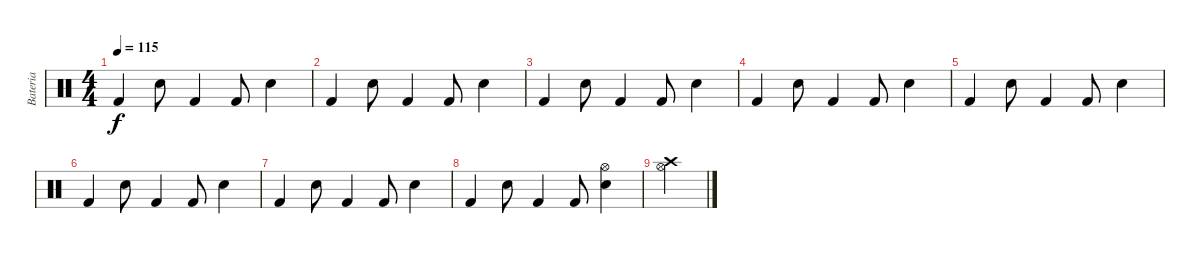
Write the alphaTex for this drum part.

\track ("Bateria" "Bateria") {instrument percussion}
\staff {score}
\articulation defaults
\ts (4 4)
\tempo 115
\clef neutral
\ks c "Kick (hit) 2".4{dy f} "Snare (hit) 2".8 "Kick (hit) 2".4 "Kick (hit) 2".8 "Snare (hit) 2".4
|
"Kick (hit) 2".4 "Snare (hit) 2".8 "Kick (hit) 2".4 "Kick (hit) 2".8 "Snare (hit) 2".4 |
"Kick (hit) 2".4 "Snare (hit) 2".8 "Kick (hit) 2".4 "Kick (hit) 2".8 "Snare (hit) 2".4 |
"Kick (hit) 2".4 "Snare (hit) 2".8 "Kick (hit) 2".4 "Kick (hit) 2".8 "Snare (hit) 2".4 |
"Kick (hit) 2".4 "Snare (hit) 2".8 "Kick (hit) 2".4 "Kick (hit) 2".8 "Snare (hit) 2".4 |
"Kick (hit) 2".4 "Snare (hit) 2".8 "Kick (hit) 2".4 "Kick (hit) 2".8 "Snare (hit) 2".4 |
"Kick (hit) 2".4 "Snare (hit) 2".8 "Kick (hit) 2".4 "Kick (hit) 2".8 "Snare (hit) 2".4 |
"Kick (hit) 2".4 "Snare (hit) 2".8 "Kick (hit) 2".4 "Kick (hit) 2".8 ("Snare (hit) 2" "Hi-Hat (open)").4 |
("Hi-Hat (open)" "Crash high (hit)").4
